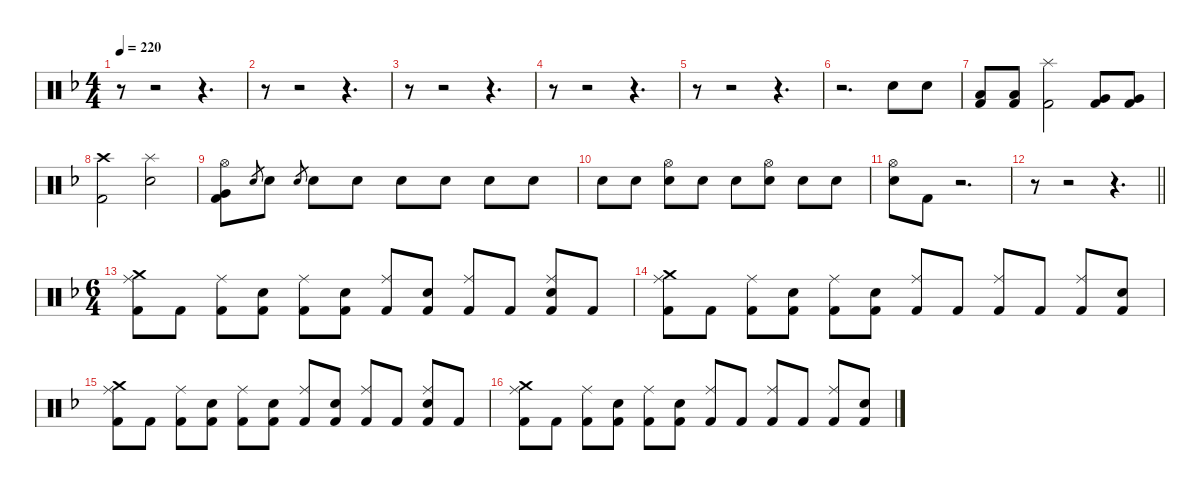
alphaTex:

\hideDynamics
\bracketExtendMode nobrackets
\singleTrackTrackNamePolicy hidden
\multiTrackTrackNamePolicy hidden
\firstSystemTrackNameMode fullname
\firstSystemTrackNameOrientation horizontal
\otherSystemsTrackNameOrientation horizontal
\track ("Drumkit" "Drums") {instrument percussion}
\staff {score}
\articulation defaults
\ts (4 4)
\tempo 220
\clef neutral
\ks dminor
r.8{dy mf beam Down} r.2{beam Down} r.4{d beam Down} |
r.8{beam Down} r.2{beam Down} r.4{d beam Down} |
r.8{beam Down} r.2{beam Down} r.4{d beam Down} |
r.8{beam Down} r.2{beam Down} r.4{d beam Down} |
r.8{beam Down} r.2{beam Down} r.4{d beam Down} |
r.2{d beam Down} "Snare (hit) 2"{acc forcenatural}.8{dy f beam Down} "Snare (hit) 2"{acc forcenatural}.8{beam Down} |
("Low Tom (hit)"{acc forcenatural} "Kick (hit) 2"{acc forcenatural}).8{beam Up} ("Low Tom (hit)"{acc forcenatural} "Kick (hit) 2"{acc forcenatural}).8{beam Up} ("Splash (hit)"{acc forcenatural} "Kick (hit) 2"{acc forcenatural}).2{beam Down} ("Very Low Tom (hit)"{acc forcenatural} "Kick (hit) 2"{acc forcenatural}).8{beam Up} ("Very Low Tom (hit)"{acc forcenatural} "Kick (hit) 2"{acc forcenatural}).8{beam Up} |
("Crash high (hit)"{acc forcenatural} "Kick (hit) 2"{acc forcenatural}).2{beam Down} ("Splash (hit)"{acc forcenatural} "Snare (hit) 2"{acc forcenatural}).2{dy mf beam Down} |
("Hi-Hat (open)"{acc forcenatural} "Very Low Tom (hit)"{acc forcenatural} "Kick (hit) 2"{acc forcenatural}).8{dy f beam Down} "Snare (hit) 2"{acc forcenatural}.8{gr dy mf beam Up} "Snare (hit) 2"{acc forcenatural}.8{beam Down} "Snare (hit) 2"{acc forcenatural}.8{gr dy pp beam Up} "Snare (hit) 2"{acc forcenatural}.8{dy mp beam Down} "Snare (hit) 2"{acc forcenatural}.8{beam Down} "Snare (hit) 2"{acc forcenatural}.8{beam Down} "Snare (hit) 2"{acc forcenatural}.8{beam Down} "Snare (hit) 2"{acc forcenatural}.8{dy mf beam Down} "Snare (hit) 2"{acc forcenatural}.8{beam Down} |
"Snare (hit) 2"{acc forcenatural}.8{dy f beam Down} "Snare (hit) 2"{acc forcenatural}.8{dy mf beam Down} ("Snare (hit) 2"{acc forcenatural} "Hi-Hat (open)"{acc forcenatural}).8{dy p beam Down} "Snare (hit) 2"{acc forcenatural}.8{dy f beam Down} "Snare (hit) 2"{acc forcenatural}.8{dy mf beam Down} ("Snare (hit) 2"{acc forcenatural} "Hi-Hat (open)"{acc forcenatural}).8{dy p beam Down} "Snare (hit) 2"{acc forcenatural}.8{dy mf beam Down} "Snare (hit) 2"{acc forcenatural}.8{beam Down} |
("Hi-Hat (open)"{acc forcenatural} "Snare (hit) 2"{acc forcenatural}).8{dy f beam Down} "Kick (hit) 2"{acc forcenatural}.8{beam Down} r.2{d beam Down} |
\barLineRight lightlight
r.8{beam Down} r.2{beam Down} r.4{d beam Down} |
\ts (6 4)
("Ride (middle)"{acc forcenatural} "Crash medium (hit)"{acc forcenatural} "Kick (hit) 2"{acc forcenatural}).8{dy mf beam Down} "Kick (hit) 2"{acc forcenatural}.8{dy f beam Down} ("Ride (middle)"{acc forcenatural} "Kick (hit) 2"{acc forcenatural}).8{dy mf beam Down} ("Snare (hit) 2"{acc forcenatural} "Kick (hit) 2"{acc forcenatural}).8{dy f beam Down} ("Ride (middle)"{acc forcenatural} "Kick (hit) 2"{acc forcenatural}).8{dy mf beam Down} ("Snare (hit) 2"{acc forcenatural} "Kick (hit) 2"{acc forcenatural}).8{dy f beam Down} ("Ride (middle)"{acc forcenatural} "Kick (hit) 2"{acc forcenatural}).8{dy mf beam Up} ("Snare (hit) 2"{acc forcenatural} "Kick (hit) 2"{acc forcenatural}).8{dy f beam Up} ("Ride (middle)"{acc forcenatural} "Kick (hit) 2"{acc forcenatural}).8{dy mf beam Up} "Kick (hit) 2"{acc forcenatural}.8{dy f beam Up} ("Ride (middle)"{acc forcenatural} "Snare (hit) 2"{acc forcenatural} "Kick (hit) 2"{acc forcenatural}).8{dy mf beam Up} "Kick (hit) 2"{acc forcenatural}.8{dy f beam Up} |
("Ride (middle)"{acc forcenatural} "Crash medium (hit)"{acc forcenatural} "Kick (hit) 2"{acc forcenatural}).8{dy mf beam Down} "Kick (hit) 2"{acc forcenatural}.8{dy f beam Down} ("Ride (middle)"{acc forcenatural} "Kick (hit) 2"{acc forcenatural}).8{dy mf beam Down} ("Snare (hit) 2"{acc forcenatural} "Kick (hit) 2"{acc forcenatural}).8{dy f beam Down} ("Ride (middle)"{acc forcenatural} "Kick (hit) 2"{acc forcenatural}).8{dy mf beam Down} ("Snare (hit) 2"{acc forcenatural} "Kick (hit) 2"{acc forcenatural}).8{dy f beam Down} ("Ride (middle)"{acc forcenatural} "Kick (hit) 2"{acc forcenatural}).8{dy mf beam Up} "Kick (hit) 2"{acc forcenatural}.8{dy f beam Up} ("Ride (middle)"{acc forcenatural} "Kick (hit) 2"{acc forcenatural}).8{dy mf beam Up} "Kick (hit) 2"{acc forcenatural}.8{dy f beam Up} ("Ride (middle)"{acc forcenatural} "Kick (hit) 2"{acc forcenatural}).8{dy mf beam Up} ("Snare (hit) 2"{acc forcenatural} "Kick (hit) 2"{acc forcenatural}).8{dy f beam Up} |
("Ride (middle)"{acc forcenatural} "Crash medium (hit)"{acc forcenatural} "Kick (hit) 2"{acc forcenatural}).8{dy mf beam Down} "Kick (hit) 2"{acc forcenatural}.8{dy f beam Down} ("Ride (middle)"{acc forcenatural} "Kick (hit) 2"{acc forcenatural}).8{dy mf beam Down} ("Snare (hit) 2"{acc forcenatural} "Kick (hit) 2"{acc forcenatural}).8{dy f beam Down} ("Ride (middle)"{acc forcenatural} "Kick (hit) 2"{acc forcenatural}).8{dy mf beam Down} ("Snare (hit) 2"{acc forcenatural} "Kick (hit) 2"{acc forcenatural}).8{dy f beam Down} ("Ride (middle)"{acc forcenatural} "Kick (hit) 2"{acc forcenatural}).8{dy mf beam Up} ("Snare (hit) 2"{acc forcenatural} "Kick (hit) 2"{acc forcenatural}).8{dy f beam Up} ("Ride (middle)"{acc forcenatural} "Kick (hit) 2"{acc forcenatural}).8{dy mf beam Up} "Kick (hit) 2"{acc forcenatural}.8{dy f beam Up} ("Ride (middle)"{acc forcenatural} "Snare (hit) 2"{acc forcenatural} "Kick (hit) 2"{acc forcenatural}).8{dy mf beam Up} "Kick (hit) 2"{acc forcenatural}.8{dy f beam Up} |
("Ride (middle)"{acc forcenatural} "Crash medium (hit)"{acc forcenatural} "Kick (hit) 2"{acc forcenatural}).8{dy mf beam Down} "Kick (hit) 2"{acc forcenatural}.8{dy f beam Down} ("Ride (middle)"{acc forcenatural} "Kick (hit) 2"{acc forcenatural}).8{dy mf beam Down} ("Snare (hit) 2"{acc forcenatural} "Kick (hit) 2"{acc forcenatural}).8{dy f beam Down} ("Ride (middle)"{acc forcenatural} "Kick (hit) 2"{acc forcenatural}).8{dy mf beam Down} ("Snare (hit) 2"{acc forcenatural} "Kick (hit) 2"{acc forcenatural}).8{dy f beam Down} ("Ride (middle)"{acc forcenatural} "Kick (hit) 2"{acc forcenatural}).8{dy mf beam Up} "Kick (hit) 2"{acc forcenatural}.8{dy f beam Up} ("Ride (middle)"{acc forcenatural} "Kick (hit) 2"{acc forcenatural}).8{dy mf beam Up} "Kick (hit) 2"{acc forcenatural}.8{dy f beam Up} ("Ride (middle)"{acc forcenatural} "Kick (hit) 2"{acc forcenatural}).8{dy mf beam Up} ("Snare (hit) 2"{acc forcenatural} "Kick (hit) 2"{acc forcenatural}).8{dy f beam Up}
